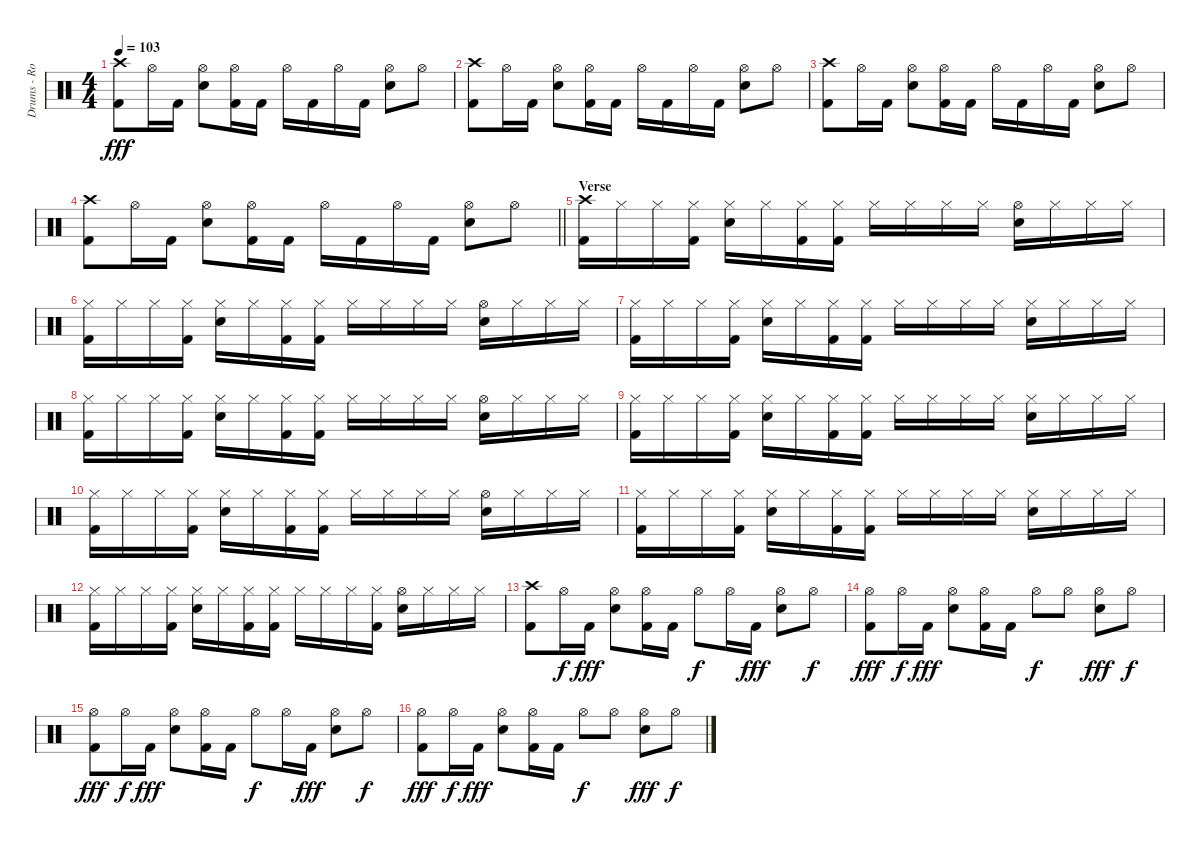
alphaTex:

\track ("Drums - Rob Bourdon" "Drums - Ro") {instrument percussion}
\staff {score}
\articulation defaults
\ts (4 4)
\tempo 103
\clef neutral
\ks c
("Crash high (hit)" "Kick (hit) 2").8{dy fff} "Hi-Hat (open)".16 "Kick (hit) 2".16 ("Hi-Hat (open)" "Snare (hit) 2").8 ("Hi-Hat (open)" "Kick (hit) 2").16 "Kick (hit) 2".16 "Hi-Hat (open)".16 "Kick (hit) 2".16 "Hi-Hat (open)".16 "Kick (hit) 2".16 ("Hi-Hat (open)" "Snare (hit) 2").8 "Hi-Hat (open)".8 |
("Crash high (hit)" "Kick (hit) 2").8 "Hi-Hat (open)".16 "Kick (hit) 2".16 ("Hi-Hat (open)" "Snare (hit) 2").8 ("Hi-Hat (open)" "Kick (hit) 2").16 "Kick (hit) 2".16 "Hi-Hat (open)".16 "Kick (hit) 2".16 "Hi-Hat (open)".16 "Kick (hit) 2".16 ("Hi-Hat (open)" "Snare (hit) 2").8 "Hi-Hat (open)".8 |
("Crash high (hit)" "Kick (hit) 2").8 "Hi-Hat (open)".16 "Kick (hit) 2".16 ("Hi-Hat (open)" "Snare (hit) 2").8 ("Hi-Hat (open)" "Kick (hit) 2").16 "Kick (hit) 2".16 "Hi-Hat (open)".16 "Kick (hit) 2".16 "Hi-Hat (open)".16 "Kick (hit) 2".16 ("Hi-Hat (open)" "Snare (hit) 2").8 "Hi-Hat (open)".8 |
\barLineRight lightlight
("Crash high (hit)" "Kick (hit) 2").8 "Hi-Hat (open)".16 "Kick (hit) 2".16 ("Hi-Hat (open)" "Snare (hit) 2").8 ("Hi-Hat (open)" "Kick (hit) 2").16 "Kick (hit) 2".16 "Hi-Hat (open)".16 "Kick (hit) 2".16 "Hi-Hat (open)".16 "Kick (hit) 2".16 ("Hi-Hat (open)" "Snare (hit) 2").8 "Hi-Hat (open)".8 |
\section ("" "Verse")
("Crash high (hit)" "Kick (hit) 2").16 "Hi-Hat (closed)".16 "Hi-Hat (closed)".16 ("Hi-Hat (closed)" "Kick (hit) 2").16 ("Hi-Hat (closed)" "Snare (hit) 2").16 "Hi-Hat (closed)".16 ("Hi-Hat (closed)" "Kick (hit) 2").16 ("Hi-Hat (closed)" "Kick (hit) 2").16 "Hi-Hat (closed)".16 "Hi-Hat (closed)".16 "Hi-Hat (closed)".16 "Hi-Hat (closed)".16 ("Hi-Hat (open)" "Snare (hit) 2").16 "Hi-Hat (closed)".16 "Hi-Hat (closed)".16 "Hi-Hat (closed)".16 |
("Hi-Hat (closed)" "Kick (hit) 2").16 "Hi-Hat (closed)".16 "Hi-Hat (closed)".16 ("Hi-Hat (closed)" "Kick (hit) 2").16 ("Hi-Hat (closed)" "Snare (hit) 2").16 "Hi-Hat (closed)".16 ("Hi-Hat (closed)" "Kick (hit) 2").16 ("Hi-Hat (closed)" "Kick (hit) 2").16 "Hi-Hat (closed)".16 "Hi-Hat (closed)".16 "Hi-Hat (closed)".16 "Hi-Hat (closed)".16 ("Hi-Hat (open)" "Snare (hit) 2").16 "Hi-Hat (closed)".16 "Hi-Hat (closed)".16 "Hi-Hat (closed)".16 |
("Hi-Hat (closed)" "Kick (hit) 2").16 "Hi-Hat (closed)".16 "Hi-Hat (closed)".16 ("Hi-Hat (closed)" "Kick (hit) 2").16 ("Hi-Hat (closed)" "Snare (hit) 2").16 "Hi-Hat (closed)".16 ("Hi-Hat (closed)" "Kick (hit) 2").16 ("Hi-Hat (closed)" "Kick (hit) 2").16 "Hi-Hat (closed)".16 "Hi-Hat (closed)".16 "Hi-Hat (closed)".16 "Hi-Hat (closed)".16 ("Hi-Hat (closed)" "Snare (hit) 2").16 "Hi-Hat (closed)".16 "Hi-Hat (closed)".16 "Hi-Hat (closed)".16 |
("Hi-Hat (closed)" "Kick (hit) 2").16 "Hi-Hat (closed)".16 "Hi-Hat (closed)".16 ("Hi-Hat (closed)" "Kick (hit) 2").16 ("Hi-Hat (closed)" "Snare (hit) 2").16 "Hi-Hat (closed)".16 ("Hi-Hat (closed)" "Kick (hit) 2").16 ("Hi-Hat (closed)" "Kick (hit) 2").16 "Hi-Hat (closed)".16 "Hi-Hat (closed)".16 "Hi-Hat (closed)".16 "Hi-Hat (closed)".16 ("Hi-Hat (open)" "Snare (hit) 2").16 "Hi-Hat (closed)".16 "Hi-Hat (closed)".16 "Hi-Hat (closed)".16 |
("Hi-Hat (closed)" "Kick (hit) 2").16 "Hi-Hat (closed)".16 "Hi-Hat (closed)".16 ("Hi-Hat (closed)" "Kick (hit) 2").16 ("Hi-Hat (closed)" "Snare (hit) 2").16 "Hi-Hat (closed)".16 ("Hi-Hat (closed)" "Kick (hit) 2").16 ("Hi-Hat (closed)" "Kick (hit) 2").16 "Hi-Hat (closed)".16 "Hi-Hat (closed)".16 "Hi-Hat (closed)".16 "Hi-Hat (closed)".16 ("Hi-Hat (closed)" "Snare (hit) 2").16 "Hi-Hat (closed)".16 "Hi-Hat (closed)".16 "Hi-Hat (closed)".16 |
("Hi-Hat (closed)" "Kick (hit) 2").16 "Hi-Hat (closed)".16 "Hi-Hat (closed)".16 ("Hi-Hat (closed)" "Kick (hit) 2").16 ("Hi-Hat (closed)" "Snare (hit) 2").16 "Hi-Hat (closed)".16 ("Hi-Hat (closed)" "Kick (hit) 2").16 ("Hi-Hat (closed)" "Kick (hit) 2").16 "Hi-Hat (closed)".16 "Hi-Hat (closed)".16 "Hi-Hat (closed)".16 "Hi-Hat (closed)".16 ("Hi-Hat (open)" "Snare (hit) 2").16 "Hi-Hat (closed)".16 "Hi-Hat (closed)".16 "Hi-Hat (closed)".16 |
("Hi-Hat (closed)" "Kick (hit) 2").16 "Hi-Hat (closed)".16 "Hi-Hat (closed)".16 ("Hi-Hat (closed)" "Kick (hit) 2").16 ("Hi-Hat (closed)" "Snare (hit) 2").16 "Hi-Hat (closed)".16 ("Hi-Hat (closed)" "Kick (hit) 2").16 ("Hi-Hat (closed)" "Kick (hit) 2").16 "Hi-Hat (closed)".16 "Hi-Hat (closed)".16 "Hi-Hat (closed)".16 "Hi-Hat (closed)".16 ("Hi-Hat (closed)" "Snare (hit) 2").16 "Hi-Hat (closed)".16 "Hi-Hat (closed)".16 "Hi-Hat (closed)".16 |
("Hi-Hat (closed)" "Kick (hit) 2").16 "Hi-Hat (closed)".16 "Hi-Hat (closed)".16 ("Hi-Hat (closed)" "Kick (hit) 2").16 ("Hi-Hat (closed)" "Snare (hit) 2").16 "Hi-Hat (closed)".16 ("Hi-Hat (closed)" "Kick (hit) 2").16 ("Hi-Hat (closed)" "Kick (hit) 2").16 "Hi-Hat (closed)".16 "Hi-Hat (closed)".16 "Hi-Hat (closed)".16 ("Hi-Hat (closed)" "Kick (hit) 2").16 ("Hi-Hat (open)" "Snare (hit) 2").16 "Hi-Hat (closed)".16 "Hi-Hat (closed)".16 "Hi-Hat (closed)".16 |
("Crash high (hit)" "Kick (hit) 2").8 "Hi-Hat (open)".16{dy f} "Kick (hit) 2".16{dy fff} ("Hi-Hat (open)" "Snare (hit) 2").8 ("Hi-Hat (open)" "Kick (hit) 2").16 "Kick (hit) 2".16 "Hi-Hat (open)".8{dy f} "Hi-Hat (open)".16 "Kick (hit) 2".16{dy fff} ("Hi-Hat (open)" "Snare (hit) 2").8 "Hi-Hat (open)".8{dy f} |
("Hi-Hat (open)" "Kick (hit) 2").8{dy fff} "Hi-Hat (open)".16{dy f} "Kick (hit) 2".16{dy fff} ("Hi-Hat (open)" "Snare (hit) 2").8 ("Hi-Hat (open)" "Kick (hit) 2").16 "Kick (hit) 2".16 "Hi-Hat (open)".8{dy f} "Hi-Hat (open)".8 ("Hi-Hat (open)" "Snare (hit) 2").8{dy fff} "Hi-Hat (open)".8{dy f} |
("Hi-Hat (open)" "Kick (hit) 2").8{dy fff} "Hi-Hat (open)".16{dy f} "Kick (hit) 2".16{dy fff} ("Hi-Hat (open)" "Snare (hit) 2").8 ("Hi-Hat (open)" "Kick (hit) 2").16 "Kick (hit) 2".16 "Hi-Hat (open)".8{dy f} "Hi-Hat (open)".16 "Kick (hit) 2".16{dy fff} ("Hi-Hat (open)" "Snare (hit) 2").8 "Hi-Hat (open)".8{dy f} |
("Hi-Hat (open)" "Kick (hit) 2").8{dy fff} "Hi-Hat (open)".16{dy f} "Kick (hit) 2".16{dy fff} ("Hi-Hat (open)" "Snare (hit) 2").8 ("Hi-Hat (open)" "Kick (hit) 2").16 "Kick (hit) 2".16 "Hi-Hat (open)".8{dy f} "Hi-Hat (open)".8 ("Hi-Hat (open)" "Snare (hit) 2").8{dy fff} "Hi-Hat (open)".8{dy f}
